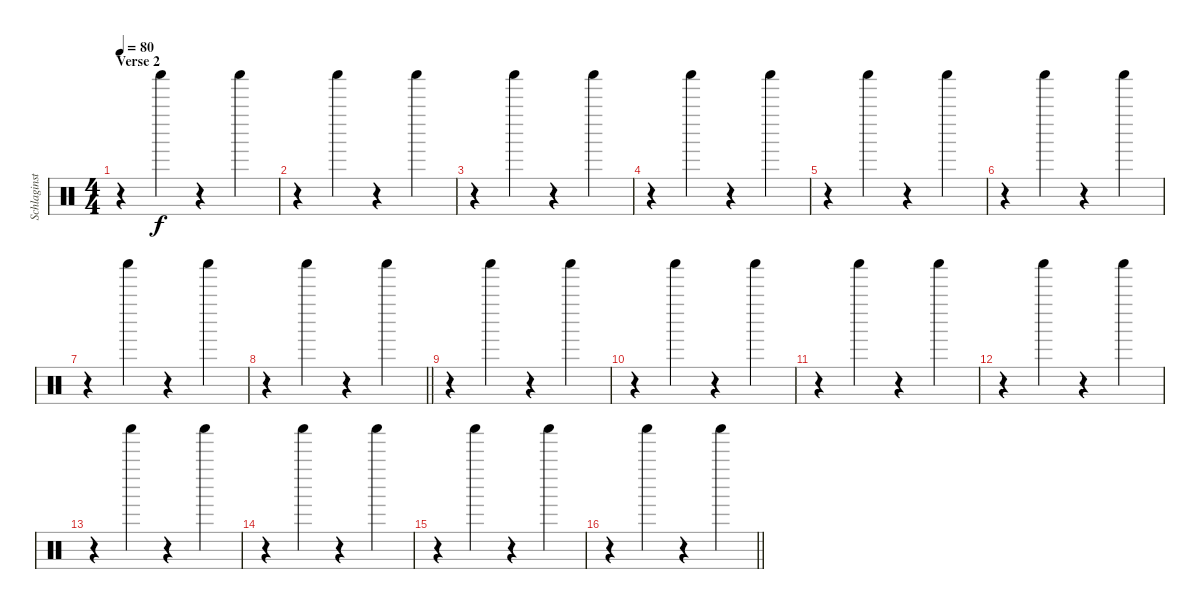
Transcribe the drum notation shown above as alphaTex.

\track ("Schlaginstrumente - Auswahl" "Schlaginst") {instrument percussion}
\staff {score}
\articulation defaults
\ts (4 4)
\section ("" "Verse 2")
\tempo 80
\clef neutral
\ks c
r.4{dy f} "Shaker (hit)".4 r.4 "Shaker (hit)".4 |
r.4 "Shaker (hit)".4 r.4 "Shaker (hit)".4 |
r.4 "Shaker (hit)".4 r.4 "Shaker (hit)".4 |
r.4 "Shaker (hit)".4 r.4 "Shaker (hit)".4 |
r.4 "Shaker (hit)".4 r.4 "Shaker (hit)".4 |
r.4 "Shaker (hit)".4 r.4 "Shaker (hit)".4 |
r.4 "Shaker (hit)".4 r.4 "Shaker (hit)".4 |
\barLineRight lightlight
r.4 "Shaker (hit)".4 r.4 "Shaker (hit)".4 |
r.4 "Shaker (hit)".4 r.4 "Shaker (hit)".4 |
r.4 "Shaker (hit)".4 r.4 "Shaker (hit)".4 |
r.4 "Shaker (hit)".4 r.4 "Shaker (hit)".4 |
r.4 "Shaker (hit)".4 r.4 "Shaker (hit)".4 |
r.4 "Shaker (hit)".4 r.4 "Shaker (hit)".4 |
r.4 "Shaker (hit)".4 r.4 "Shaker (hit)".4 |
r.4 "Shaker (hit)".4 r.4 "Shaker (hit)".4 |
\barLineRight lightlight
r.4 "Shaker (hit)".4 r.4 "Shaker (hit)".4
